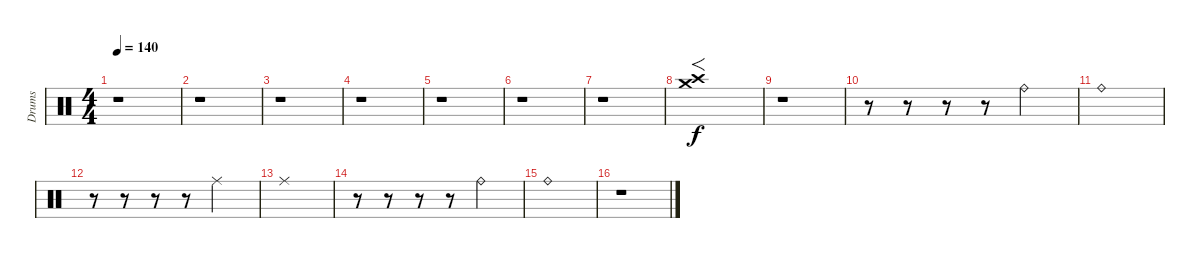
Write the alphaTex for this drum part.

\track ("Drums" "Drums") {instrument percussion}
\staff {score}
\articulation defaults
\ts (4 4)
\tempo 140
\clef neutral
\ks c
r.1{dy f} |
r.1 |
r.1 |
r.1 |
r.1 |
r.1 |
r.1 |
("Crash medium (hit)" "Crash high (hit)").1{f} |
r.1 |
r.8 r.8 r.8 r.8 "Ride (bell)".2 |
"Ride (bell)".1 |
r.8 r.8 r.8 r.8 "Ride (middle)".2 |
"Ride (middle)".1 |
r.8 r.8 r.8 r.8 "Ride (bell)".2 |
"Ride (bell)".1 |
r.1
